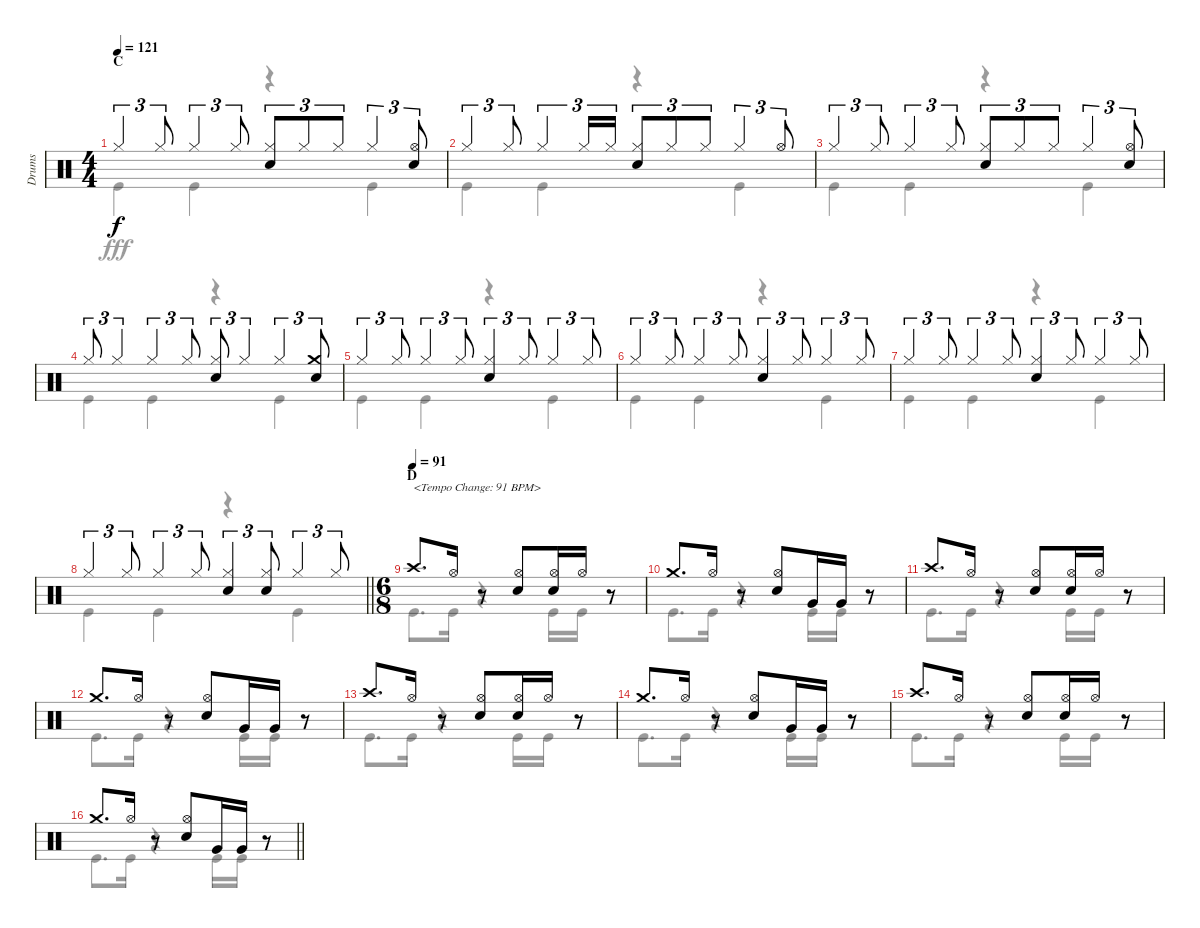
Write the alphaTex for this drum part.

\track ("Drums" "Drums") {instrument percussion}
\staff {score}
\articulation defaults
\voice
\ts (4 4)
\section ("" "C")
\tempo 121
\clef neutral
\ks c "Hi-Hat (closed)".4{tu (3 2) dy f} "Hi-Hat (closed)".8{tu (3 2)} "Hi-Hat (closed)".4{tu (3 2)} "Hi-Hat (closed)".8{tu (3 2)}
("Hi-Hat (closed)" "Snare (hit) 2").8{tu (3 2)} "Hi-Hat (closed)".8{tu (3 2)} "Hi-Hat (closed)".8{tu (3 2)} "Hi-Hat (closed)".4{tu (3 2)} ("Hi-Hat (open)" "Snare (hit) 2").8{tu (3 2)} |
"Hi-Hat (closed)".4{tu (3 2)} "Hi-Hat (closed)".8{tu (3 2)} "Hi-Hat (closed)".4{tu (3 2)} "Hi-Hat (closed)".16{tu (3 2)} "Hi-Hat (closed)".16{tu (3 2)} ("Hi-Hat (closed)" "Snare (hit) 2").8{tu (3 2)} "Hi-Hat (closed)".8{tu (3 2)} "Hi-Hat (closed)".8{tu (3 2)} "Hi-Hat (closed)".4{tu (3 2)} "Hi-Hat (open)".8{tu (3 2)} |
"Hi-Hat (closed)".4{tu (3 2)} "Hi-Hat (closed)".8{tu (3 2)} "Hi-Hat (closed)".4{tu (3 2)} "Hi-Hat (closed)".8{tu (3 2)} ("Hi-Hat (closed)" "Snare (hit) 2").8{tu (3 2)} "Hi-Hat (closed)".8{tu (3 2)} "Hi-Hat (closed)".8{tu (3 2)} "Hi-Hat (closed)".4{tu (3 2)} ("Hi-Hat (open)" "Snare (hit) 2").8{tu (3 2)} |
"Hi-Hat (closed)".8{tu (3 2)} "Hi-Hat (closed)".4{tu (3 2)} "Hi-Hat (closed)".4{tu (3 2)} "Hi-Hat (closed)".8{tu (3 2)} ("Hi-Hat (closed)" "Snare (hit) 2").8{tu (3 2)} "Hi-Hat (closed)".4{tu (3 2)} "Hi-Hat (closed)".4{tu (3 2)} ("Crash medium (hit)" "Snare (hit) 2").8{tu (3 2)} |
"Hi-Hat (closed)".4{tu (3 2)} "Hi-Hat (closed)".8{tu (3 2)} "Hi-Hat (closed)".4{tu (3 2)} "Hi-Hat (closed)".8{tu (3 2)} ("Hi-Hat (closed)" "Snare (hit) 2").4{tu (3 2)} "Hi-Hat (closed)".8{tu (3 2)} "Hi-Hat (closed)".4{tu (3 2)} "Hi-Hat (closed)".8{tu (3 2)} |
"Hi-Hat (closed)".4{tu (3 2)} "Hi-Hat (closed)".8{tu (3 2)} "Hi-Hat (closed)".4{tu (3 2)} "Hi-Hat (closed)".8{tu (3 2)} ("Hi-Hat (closed)" "Snare (hit) 2").4{tu (3 2)} "Hi-Hat (closed)".8{tu (3 2)} "Hi-Hat (closed)".4{tu (3 2)} "Hi-Hat (closed)".8{tu (3 2)} |
"Hi-Hat (closed)".4{tu (3 2)} "Hi-Hat (closed)".8{tu (3 2)} "Hi-Hat (closed)".4{tu (3 2)} "Hi-Hat (closed)".8{tu (3 2)} ("Hi-Hat (closed)" "Snare (hit) 2").4{tu (3 2)} "Hi-Hat (closed)".8{tu (3 2)} "Hi-Hat (closed)".4{tu (3 2)} "Hi-Hat (closed)".8{tu (3 2)} |
\barLineRight lightlight "Hi-Hat (closed)".4{tu (3 2)} "Hi-Hat (closed)".8{tu (3 2)} "Hi-Hat (closed)".4{tu (3 2)} "Hi-Hat (closed)".8{tu (3 2)}
("Hi-Hat (closed)" "Snare (hit) 2").4{tu (3 2)} ("Hi-Hat (closed)" "Snare (hit) 2").8{tu (3 2)} "Hi-Hat (closed)".4{tu (3 2)} "Hi-Hat (closed)".8{tu (3 2)} |
\ts (6 8)
\section ("" "D")
\tempo (91)
"Crash high (hit)".8{d txt "<Tempo Change: 91 BPM>"} "Hi-Hat (open)".16 r.8 ("Hi-Hat (open)" "Snare (hit) 2").8 ("Hi-Hat (open)" "Snare (hit) 2").16 "Hi-Hat (open)".16 r.8 |
"Crash medium (hit)".8{d} "Hi-Hat (open)".16 r.8 ("Hi-Hat (open)" "Snare (hit) 2").8 "Very Low Tom (hit)".16 "Very Low Tom (hit)".16 r.8 |
"Crash high (hit)".8{d} "Hi-Hat (open)".16 r.8 ("Hi-Hat (open)" "Snare (hit) 2").8 ("Hi-Hat (open)" "Snare (hit) 2").16 "Hi-Hat (open)".16 r.8 |
"Crash medium (hit)".8{d} "Hi-Hat (open)".16 r.8 ("Hi-Hat (open)" "Snare (hit) 2").8 "Very Low Tom (hit)".16 "Very Low Tom (hit)".16 r.8 |
"Crash high (hit)".8{d} "Hi-Hat (open)".16 r.8 ("Hi-Hat (open)" "Snare (hit) 2").8 ("Hi-Hat (open)" "Snare (hit) 2").16 "Hi-Hat (open)".16 r.8 |
"Crash medium (hit)".8{d} "Hi-Hat (open)".16 r.8 ("Hi-Hat (open)" "Snare (hit) 2").8 "Very Low Tom (hit)".16 "Very Low Tom (hit)".16 r.8 |
"Crash high (hit)".8{d} "Hi-Hat (open)".16 r.8 ("Hi-Hat (open)" "Snare (hit) 2").8 ("Hi-Hat (open)" "Snare (hit) 2").16 "Hi-Hat (open)".16 r.8 |
\barLineRight lightlight "Crash medium (hit)".8{d} "Hi-Hat (open)".16
r.8 ("Hi-Hat (open)" "Snare (hit) 2").8 "Very Low Tom (hit)".16 "Very Low Tom (hit)".16 r.8
\voice
\clef neutral
\ottava regular
\simile none
\ks c "Kick (hit)".4{dy fff} "Kick (hit)".4
r.4 "Kick (hit)".4 |
"Kick (hit)".4 "Kick (hit)".4 r.4 "Kick (hit)".4 |
"Kick (hit)".4 "Kick (hit)".4 r.4 "Kick (hit)".4 |
"Kick (hit)".4 "Kick (hit)".4 r.4 "Kick (hit)".4 |
"Kick (hit)".4 "Kick (hit)".4 r.4 "Kick (hit)".4 |
"Kick (hit)".4 "Kick (hit)".4 r.4 "Kick (hit)".4 |
"Kick (hit)".4 "Kick (hit)".4 r.4 "Kick (hit)".4 |
\barLineRight lightlight "Kick (hit)".4 "Kick (hit)".4
r.4 "Kick (hit)".4 |
"Kick (hit)".8{d} "Kick (hit)".16 r.4 "Kick (hit)".16 "Kick (hit)".16 r.8 |
"Kick (hit)".8{d} "Kick (hit)".16 r.4 "Kick (hit)".16 "Kick (hit)".16 r.8 |
"Kick (hit)".8{d} "Kick (hit)".16 r.4 "Kick (hit)".16 "Kick (hit)".16 r.8 |
"Kick (hit)".8{d} "Kick (hit)".16 r.4 "Kick (hit)".16 "Kick (hit)".16 r.8 |
"Kick (hit)".8{d} "Kick (hit)".16 r.4 "Kick (hit)".16 "Kick (hit)".16 r.8 |
"Kick (hit)".8{d} "Kick (hit)".16 r.4 "Kick (hit)".16 "Kick (hit)".16 r.8 |
"Kick (hit)".8{d} "Kick (hit)".16 r.4 "Kick (hit)".16 "Kick (hit)".16 r.8 |
\barLineRight lightlight "Kick (hit)".8{d} "Kick (hit)".16
r.4 "Kick (hit)".16 "Kick (hit)".16 r.8
